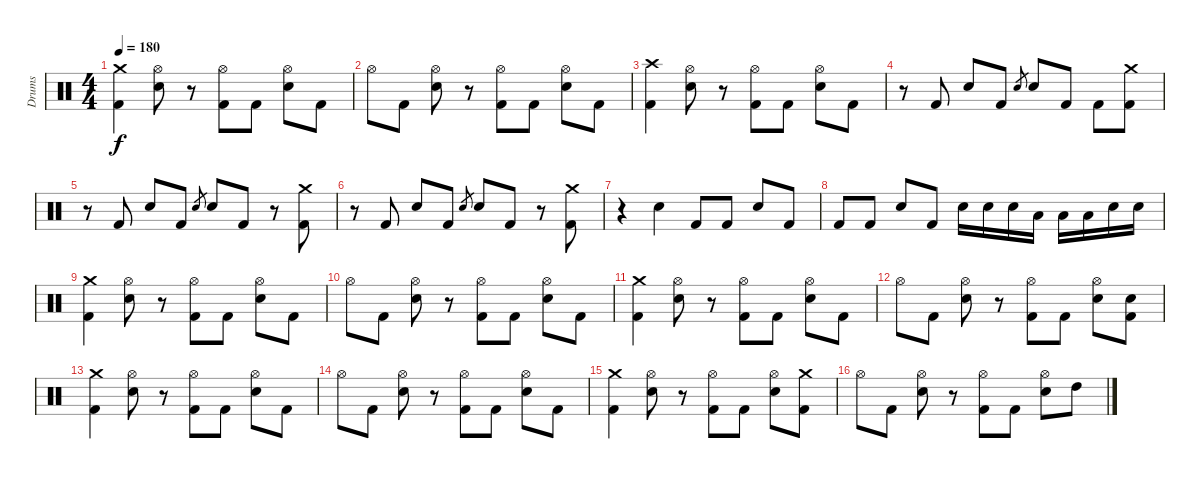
\track ("Drums" "Drums") {instrument percussion}
\staff {score}
\articulation defaults
\ts (4 4)
\tempo 180
\clef neutral
\ks c
("Crash medium (hit)" "Kick (hit) 2").4{dy f} ("Hi-Hat (open)" "Electric Snare (hit)").8 r.8 ("Hi-Hat (open)" "Kick (hit) 2").8 "Kick (hit) 2".8 ("Hi-Hat (open)" "Electric Snare (hit)").8 "Kick (hit) 2".8 |
"Hi-Hat (open)".8 "Kick (hit) 2".8 ("Hi-Hat (open)" "Electric Snare (hit)").8 r.8 ("Hi-Hat (open)" "Kick (hit) 2").8 "Kick (hit) 2".8 ("Hi-Hat (open)" "Electric Snare (hit)").8 "Kick (hit) 2".8 |
("Crash high (hit)" "Kick (hit) 2").4 ("Hi-Hat (open)" "Electric Snare (hit)").8 r.8 ("Hi-Hat (open)" "Kick (hit) 2").8 "Kick (hit) 2".8 ("Hi-Hat (open)" "Electric Snare (hit)").8 "Kick (hit) 2".8 |
r.8 "Kick (hit) 2".8 "Electric Snare (hit)".8 "Kick (hit) 2".8 "Electric Snare (hit)".8{gr} "Electric Snare (hit)".8 "Kick (hit) 2".8 "Kick (hit) 2".8 ("Crash medium (hit)" "Kick (hit) 2").8 |
r.8 "Kick (hit) 2".8 "Electric Snare (hit)".8 "Kick (hit) 2".8 "Electric Snare (hit)".8{gr} "Electric Snare (hit)".8 "Kick (hit) 2".8 r.8 ("Crash medium (hit)" "Kick (hit) 2").8 |
r.8 "Kick (hit) 2".8 "Electric Snare (hit)".8 "Kick (hit) 2".8 "Electric Snare (hit)".8{gr} "Electric Snare (hit)".8 "Kick (hit) 2".8 r.8 ("Crash medium (hit)" "Kick (hit) 2").8 |
r.4 "Electric Snare (hit)".4 "Kick (hit) 2".8 "Kick (hit) 2".8 "Electric Snare (hit)".8 "Kick (hit) 2".8 |
"Kick (hit) 2".8 "Kick (hit) 2".8 "Electric Snare (hit)".8 "Kick (hit) 2".8 "Electric Snare (hit)".16 "Electric Snare (hit)".16 "Electric Snare (hit)".16 "Low Tom (hit)".16 "Low Tom (hit)".16 "Low Tom (hit)".16 "Electric Snare (hit)".16 "Electric Snare (hit)".16 |
("Crash medium (hit)" "Kick (hit) 2").4 ("Hi-Hat (open)" "Electric Snare (hit)").8 r.8 ("Hi-Hat (open)" "Kick (hit) 2").8 "Kick (hit) 2".8 ("Hi-Hat (open)" "Electric Snare (hit)").8 "Kick (hit) 2".8 |
"Hi-Hat (open)".8 "Kick (hit) 2".8 ("Hi-Hat (open)" "Electric Snare (hit)").8 r.8 ("Hi-Hat (open)" "Kick (hit) 2").8 "Kick (hit) 2".8 ("Hi-Hat (open)" "Electric Snare (hit)").8 "Kick (hit) 2".8 |
("Crash medium (hit)" "Kick (hit) 2").4 ("Hi-Hat (open)" "Electric Snare (hit)").8 r.8 ("Hi-Hat (open)" "Kick (hit) 2").8 "Kick (hit) 2".8 ("Hi-Hat (open)" "Electric Snare (hit)").8 "Kick (hit) 2".8 |
"Hi-Hat (open)".8 "Kick (hit) 2".8 ("Hi-Hat (open)" "Electric Snare (hit)").8 r.8 ("Hi-Hat (open)" "Kick (hit) 2").8 "Kick (hit) 2".8 ("Hi-Hat (open)" "Electric Snare (hit)").8 ("Electric Snare (hit)" "Kick (hit) 2").8 |
("Crash medium (hit)" "Kick (hit) 2").4 ("Hi-Hat (open)" "Electric Snare (hit)").8 r.8 ("Hi-Hat (open)" "Kick (hit) 2").8 "Kick (hit) 2".8 ("Hi-Hat (open)" "Electric Snare (hit)").8 "Kick (hit) 2".8 |
"Hi-Hat (open)".8 "Kick (hit) 2".8 ("Hi-Hat (open)" "Electric Snare (hit)").8 r.8 ("Hi-Hat (open)" "Kick (hit) 2").8 "Kick (hit) 2".8 ("Hi-Hat (open)" "Electric Snare (hit)").8 "Kick (hit) 2".8 |
("Crash medium (hit)" "Kick (hit) 2").4 ("Hi-Hat (open)" "Electric Snare (hit)").8 r.8 ("Hi-Hat (open)" "Kick (hit) 2").8 "Kick (hit) 2".8 ("Hi-Hat (open)" "Electric Snare (hit)").8 ("Crash medium (hit)" "Kick (hit) 2").8 |
"Hi-Hat (open)".8 "Kick (hit) 2".8 ("Hi-Hat (open)" "Electric Snare (hit)").8 r.8 ("Hi-Hat (open)" "Kick (hit) 2").8 "Kick (hit) 2".8 ("Hi-Hat (open)" "Electric Snare (hit)").8 "High Tom (hit)".8
